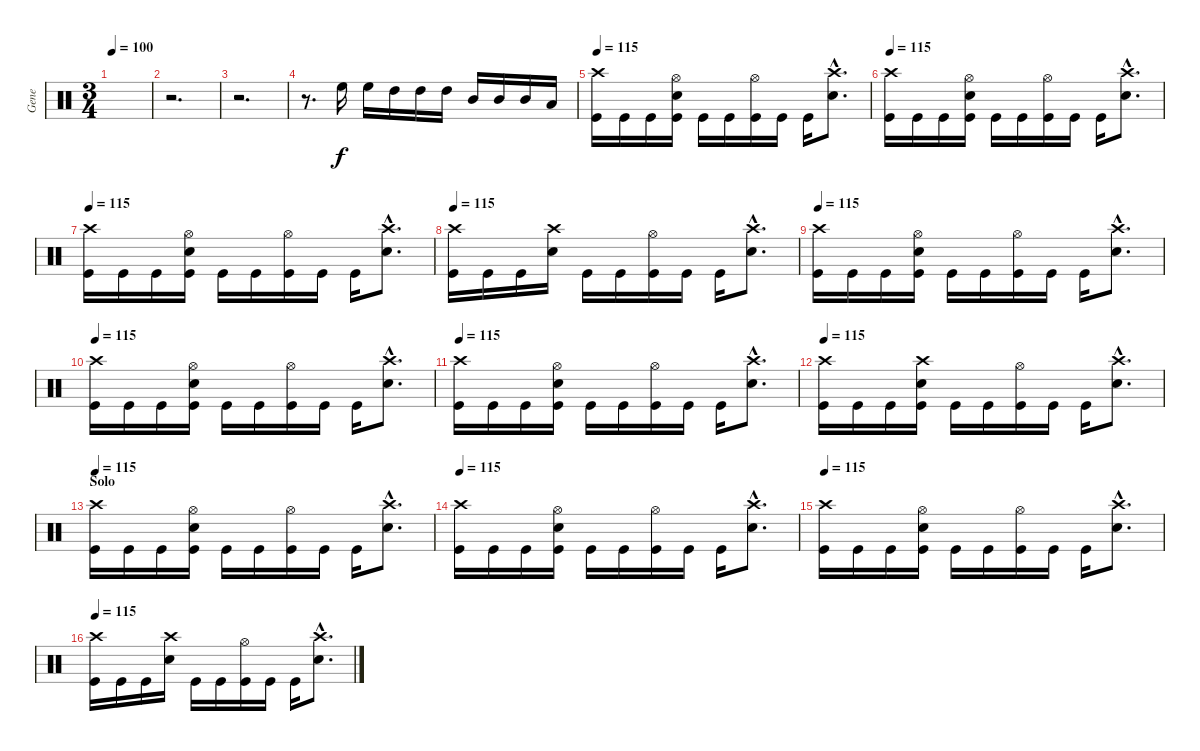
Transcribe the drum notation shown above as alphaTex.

\track ("Gene" "Gene") {instrument percussion}
\staff {score}
\articulation defaults
\ts (3 4)
\tempo 100
\clef neutral
\ks c
|
r.2{d} |
r.2{d} |
r.8{d} "High Floor Tom (hit)".16 "High Floor Tom (hit)".16 "High Tom (hit)".16 "High Tom (hit)".16 "High Tom (hit)".16 "Mid Tom (hit)".16 "Mid Tom (hit)".16 "Mid Tom (hit)".16 "Low Tom (hit)".16 |
\tempo 115
("Crash high (hit)" "Kick (hit)").16 "Kick (hit)".16 "Kick (hit)".16 ("Hi-Hat (open)" "Snare (hit) 2" "Kick (hit)").16 "Kick (hit)".16 "Kick (hit)".16 ("Hi-Hat (open)" "Kick (hit)").16 "Kick (hit)".16 "Kick (hit)".16 ("Crash high (hit)"{hac} "Snare (hit) 2"{hac}).8{d} |
\tempo 115
("Crash high (hit)" "Kick (hit)").16 "Kick (hit)".16 "Kick (hit)".16 ("Hi-Hat (open)" "Snare (hit) 2" "Kick (hit)").16 "Kick (hit)".16 "Kick (hit)".16 ("Hi-Hat (open)" "Kick (hit)").16 "Kick (hit)".16 "Kick (hit)".16 ("Crash high (hit)"{hac} "Snare (hit) 2"{hac}).8{d} |
\tempo 115
("Crash high (hit)" "Kick (hit)").16 "Kick (hit)".16 "Kick (hit)".16 ("Hi-Hat (open)" "Snare (hit) 2" "Kick (hit)").16 "Kick (hit)".16 "Kick (hit)".16 ("Hi-Hat (open)" "Kick (hit)").16 "Kick (hit)".16 "Kick (hit)".16 ("Crash high (hit)"{hac} "Snare (hit) 2"{hac}).8{d} |
\tempo 115
("Crash high (hit)" "Kick (hit)").16 "Kick (hit)".16 "Kick (hit)".16 ("Crash high (hit)" "Snare (hit) 2").16 "Kick (hit)".16 "Kick (hit)".16 ("Hi-Hat (open)" "Kick (hit)").16 "Kick (hit)".16 "Kick (hit)".16 ("Crash high (hit)"{hac} "Snare (hit) 2"{hac}).8{d} |
\tempo 115
("Crash high (hit)" "Kick (hit)").16 "Kick (hit)".16 "Kick (hit)".16 ("Hi-Hat (open)" "Snare (hit) 2" "Kick (hit)").16 "Kick (hit)".16 "Kick (hit)".16 ("Hi-Hat (open)" "Kick (hit)").16 "Kick (hit)".16 "Kick (hit)".16 ("Crash high (hit)"{hac} "Snare (hit) 2"{hac}).8{d} |
\tempo 115
("Crash high (hit)" "Kick (hit)").16 "Kick (hit)".16 "Kick (hit)".16 ("Hi-Hat (open)" "Snare (hit) 2" "Kick (hit)").16 "Kick (hit)".16 "Kick (hit)".16 ("Hi-Hat (open)" "Kick (hit)").16 "Kick (hit)".16 "Kick (hit)".16 ("Crash high (hit)"{hac} "Snare (hit) 2"{hac}).8{d} |
\tempo 115
("Crash high (hit)" "Kick (hit)").16 "Kick (hit)".16 "Kick (hit)".16 ("Hi-Hat (open)" "Snare (hit) 2" "Kick (hit)").16 "Kick (hit)".16 "Kick (hit)".16 ("Hi-Hat (open)" "Kick (hit)").16 "Kick (hit)".16 "Kick (hit)".16 ("Crash high (hit)"{hac} "Snare (hit) 2"{hac}).8{d} |
\tempo 115
("Crash high (hit)" "Kick (hit)").16 "Kick (hit)".16 "Kick (hit)".16 ("Crash high (hit)" "Snare (hit) 2" "Kick (hit)").16 "Kick (hit)".16 "Kick (hit)".16 ("Hi-Hat (open)" "Kick (hit)").16 "Kick (hit)".16 "Kick (hit)".16 ("Crash high (hit)"{hac} "Snare (hit) 2"{hac}).8{d} |
\section ("" "Solo")
\tempo 115
("Crash high (hit)" "Kick (hit)").16 "Kick (hit)".16 "Kick (hit)".16 ("Hi-Hat (open)" "Snare (hit) 2" "Kick (hit)").16 "Kick (hit)".16 "Kick (hit)".16 ("Hi-Hat (open)" "Kick (hit)").16 "Kick (hit)".16 "Kick (hit)".16 ("Crash high (hit)"{hac} "Snare (hit) 2"{hac}).8{d} |
\tempo 115
("Crash high (hit)" "Kick (hit)").16 "Kick (hit)".16 "Kick (hit)".16 ("Hi-Hat (open)" "Snare (hit) 2" "Kick (hit)").16 "Kick (hit)".16 "Kick (hit)".16 ("Hi-Hat (open)" "Kick (hit)").16 "Kick (hit)".16 "Kick (hit)".16 ("Crash high (hit)"{hac} "Snare (hit) 2"{hac}).8{d} |
\tempo 115
("Crash high (hit)" "Kick (hit)").16 "Kick (hit)".16 "Kick (hit)".16 ("Hi-Hat (open)" "Snare (hit) 2" "Kick (hit)").16 "Kick (hit)".16 "Kick (hit)".16 ("Hi-Hat (open)" "Kick (hit)").16 "Kick (hit)".16 "Kick (hit)".16 ("Crash high (hit)"{hac} "Snare (hit) 2"{hac}).8{d} |
\tempo 115
("Crash high (hit)" "Kick (hit)").16 "Kick (hit)".16 "Kick (hit)".16 ("Crash high (hit)" "Snare (hit) 2").16 "Kick (hit)".16 "Kick (hit)".16 ("Hi-Hat (open)" "Kick (hit)").16 "Kick (hit)".16 "Kick (hit)".16 ("Crash high (hit)"{hac} "Snare (hit) 2"{hac}).8{d}
